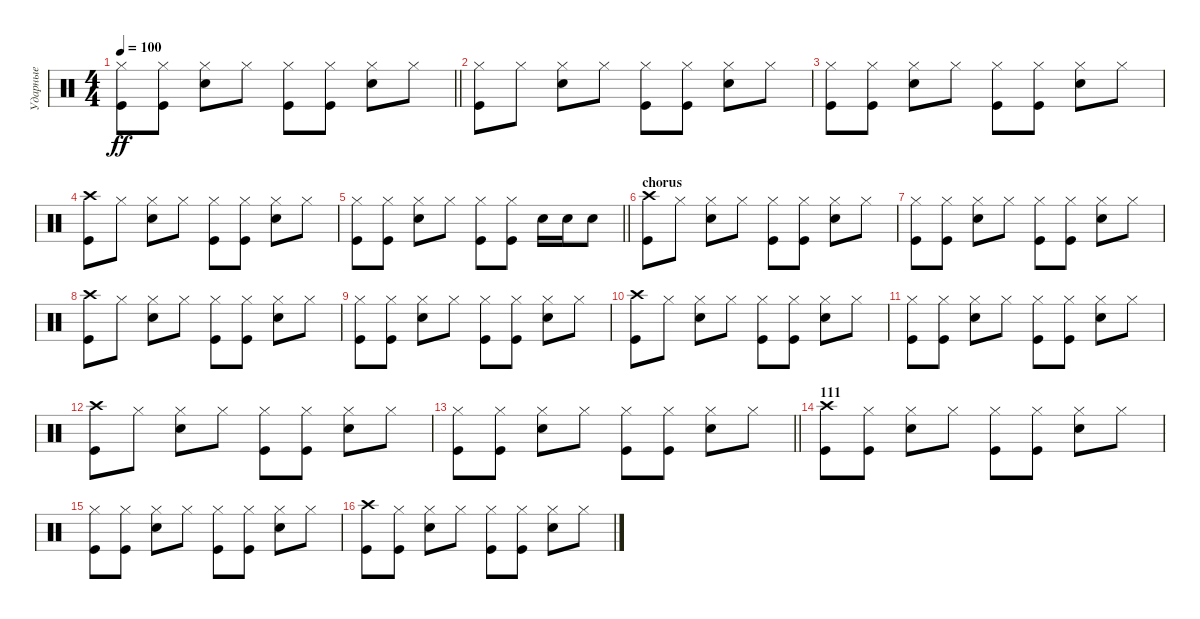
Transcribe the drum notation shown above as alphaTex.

\track ("Ударные" "Ударные") {instrument percussion}
\staff {score}
\articulation defaults
\ts (4 4)
\tempo 100
\clef neutral
\barLineRight lightlight
\ks c
("Hi-Hat (closed)" "Kick (hit)").8{dy ff} ("Hi-Hat (closed)" "Kick (hit)").8 ("Hi-Hat (closed)" "Electric Snare (hit)").8 "Hi-Hat (closed)".8 ("Hi-Hat (closed)" "Kick (hit)").8 ("Hi-Hat (closed)" "Kick (hit)").8 ("Hi-Hat (closed)" "Electric Snare (hit)").8 "Hi-Hat (closed)".8 |
("Hi-Hat (closed)" "Kick (hit)").8 "Hi-Hat (closed)".8 ("Hi-Hat (closed)" "Electric Snare (hit)").8 "Hi-Hat (closed)".8 ("Hi-Hat (closed)" "Kick (hit)").8 ("Hi-Hat (closed)" "Kick (hit)").8 ("Hi-Hat (closed)" "Electric Snare (hit)").8 "Hi-Hat (closed)".8 |
("Hi-Hat (closed)" "Kick (hit)").8 ("Hi-Hat (closed)" "Kick (hit)").8 ("Hi-Hat (closed)" "Electric Snare (hit)").8 "Hi-Hat (closed)".8 ("Hi-Hat (closed)" "Kick (hit)").8 ("Hi-Hat (closed)" "Kick (hit)").8 ("Hi-Hat (closed)" "Electric Snare (hit)").8 "Hi-Hat (closed)".8 |
("Crash high (hit)" "Kick (hit)").8 "Hi-Hat (closed)".8 ("Hi-Hat (closed)" "Electric Snare (hit)").8 "Hi-Hat (closed)".8 ("Hi-Hat (closed)" "Kick (hit)").8 ("Hi-Hat (closed)" "Kick (hit)").8 ("Hi-Hat (closed)" "Electric Snare (hit)").8 "Hi-Hat (closed)".8 |
\barLineRight lightlight
("Hi-Hat (closed)" "Kick (hit)").8 ("Hi-Hat (closed)" "Kick (hit)").8 ("Hi-Hat (closed)" "Electric Snare (hit)").8 "Hi-Hat (closed)".8 ("Hi-Hat (closed)" "Kick (hit)").8 ("Hi-Hat (closed)" "Kick (hit)").8 "Electric Snare (hit)".16 "Electric Snare (hit)".16 "Electric Snare (hit)".8 |
\section ("" "chorus")
("Crash high (hit)" "Kick (hit)").8 "Hi-Hat (closed)".8 ("Hi-Hat (closed)" "Electric Snare (hit)").8 "Hi-Hat (closed)".8 ("Hi-Hat (closed)" "Kick (hit)").8 ("Hi-Hat (closed)" "Kick (hit)").8 ("Hi-Hat (closed)" "Electric Snare (hit)").8 "Hi-Hat (closed)".8 |
("Hi-Hat (closed)" "Kick (hit)").8 ("Hi-Hat (closed)" "Kick (hit)").8 ("Hi-Hat (closed)" "Electric Snare (hit)").8 "Hi-Hat (closed)".8 ("Hi-Hat (closed)" "Kick (hit)").8 ("Hi-Hat (closed)" "Kick (hit)").8 ("Hi-Hat (closed)" "Electric Snare (hit)").8 "Hi-Hat (closed)".8 |
("Crash high (hit)" "Kick (hit)").8 "Hi-Hat (closed)".8 ("Hi-Hat (closed)" "Electric Snare (hit)").8 "Hi-Hat (closed)".8 ("Hi-Hat (closed)" "Kick (hit)").8 ("Hi-Hat (closed)" "Kick (hit)").8 ("Hi-Hat (closed)" "Electric Snare (hit)").8 "Hi-Hat (closed)".8 |
("Hi-Hat (closed)" "Kick (hit)").8 ("Hi-Hat (closed)" "Kick (hit)").8 ("Hi-Hat (closed)" "Electric Snare (hit)").8 "Hi-Hat (closed)".8 ("Hi-Hat (closed)" "Kick (hit)").8 ("Hi-Hat (closed)" "Kick (hit)").8 ("Hi-Hat (closed)" "Electric Snare (hit)").8 "Hi-Hat (closed)".8 |
("Crash high (hit)" "Kick (hit)").8 "Hi-Hat (closed)".8 ("Hi-Hat (closed)" "Electric Snare (hit)").8 "Hi-Hat (closed)".8 ("Hi-Hat (closed)" "Kick (hit)").8 ("Hi-Hat (closed)" "Kick (hit)").8 ("Hi-Hat (closed)" "Electric Snare (hit)").8 "Hi-Hat (closed)".8 |
("Hi-Hat (closed)" "Kick (hit)").8 ("Hi-Hat (closed)" "Kick (hit)").8 ("Hi-Hat (closed)" "Electric Snare (hit)").8 "Hi-Hat (closed)".8 ("Hi-Hat (closed)" "Kick (hit)").8 ("Hi-Hat (closed)" "Kick (hit)").8 ("Hi-Hat (closed)" "Electric Snare (hit)").8 "Hi-Hat (closed)".8 |
("Crash high (hit)" "Kick (hit)").8 "Hi-Hat (closed)".8 ("Hi-Hat (closed)" "Electric Snare (hit)").8 "Hi-Hat (closed)".8 ("Hi-Hat (closed)" "Kick (hit)").8 ("Hi-Hat (closed)" "Kick (hit)").8 ("Hi-Hat (closed)" "Electric Snare (hit)").8 "Hi-Hat (closed)".8 |
\barLineRight lightlight
("Hi-Hat (closed)" "Kick (hit)").8 ("Hi-Hat (closed)" "Kick (hit)").8 ("Hi-Hat (closed)" "Electric Snare (hit)").8 "Hi-Hat (closed)".8 ("Hi-Hat (closed)" "Kick (hit)").8 ("Hi-Hat (closed)" "Kick (hit)").8 ("Hi-Hat (closed)" "Electric Snare (hit)").8 "Hi-Hat (closed)".8 |
\section ("" "111")
("Crash high (hit)" "Kick (hit)").8 ("Hi-Hat (closed)" "Kick (hit)").8 ("Hi-Hat (closed)" "Electric Snare (hit)").8 "Hi-Hat (closed)".8 ("Hi-Hat (closed)" "Kick (hit)").8 ("Hi-Hat (closed)" "Kick (hit)").8 ("Hi-Hat (closed)" "Electric Snare (hit)").8 "Hi-Hat (closed)".8 |
("Hi-Hat (closed)" "Kick (hit)").8 ("Hi-Hat (closed)" "Kick (hit)").8 ("Hi-Hat (closed)" "Electric Snare (hit)").8 "Hi-Hat (closed)".8 ("Hi-Hat (closed)" "Kick (hit)").8 ("Hi-Hat (closed)" "Kick (hit)").8 ("Hi-Hat (closed)" "Electric Snare (hit)").8 "Hi-Hat (closed)".8 |
("Crash high (hit)" "Kick (hit)").8 ("Hi-Hat (closed)" "Kick (hit)").8 ("Hi-Hat (closed)" "Electric Snare (hit)").8 "Hi-Hat (closed)".8 ("Hi-Hat (closed)" "Kick (hit)").8 ("Hi-Hat (closed)" "Kick (hit)").8 ("Hi-Hat (closed)" "Electric Snare (hit)").8 "Hi-Hat (closed)".8
